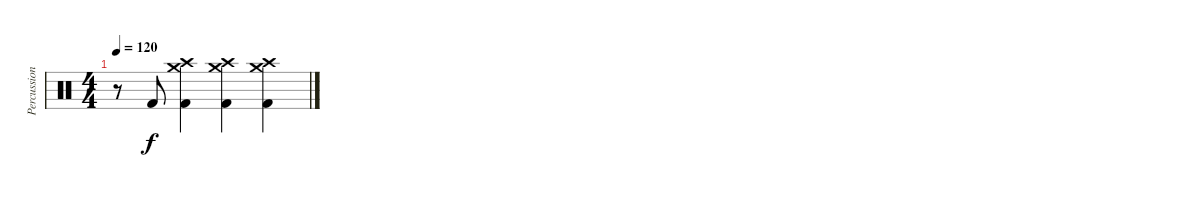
\track ("Percussion" "Percussion") {instrument percussion}
\staff {score}
\articulation defaults
\ts (4 4)
\tempo 120
\clef neutral
\ks c
r.8{dy f} "Kick (hit) 2".8 ("Crash high (hit)" "Crash medium (hit)" "Kick (hit) 2").4 ("Crash high (hit)" "Crash medium (hit)" "Kick (hit) 2").4 ("Crash high (hit)" "Crash medium (hit)" "Kick (hit) 2").4
